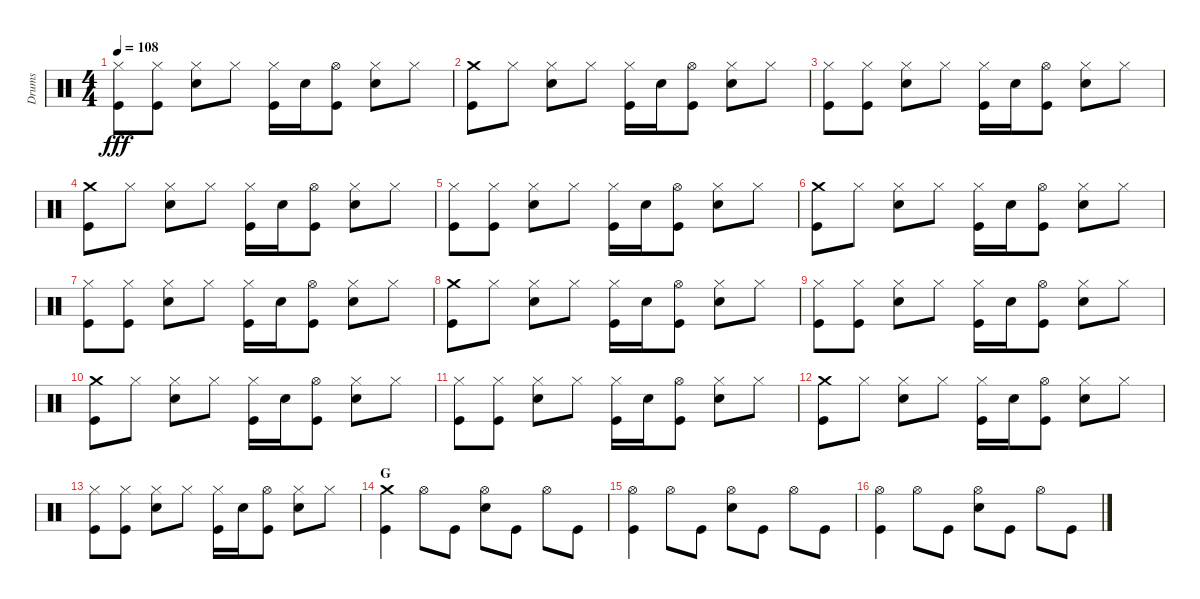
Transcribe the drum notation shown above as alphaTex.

\track ("Drums" "Drums") {instrument percussion}
\staff {score}
\articulation defaults
\ts (4 4)
\tempo 108
\clef neutral
\ks c
("Hi-Hat (closed)" "Kick (hit)").8{dy fff} ("Hi-Hat (closed)" "Kick (hit)").8 ("Hi-Hat (closed)" "Snare (hit) 2").8 "Hi-Hat (closed)".8 ("Hi-Hat (closed)" "Kick (hit)").16 "Snare (hit) 2".16 ("Hi-Hat (open)" "Kick (hit)").8 ("Hi-Hat (closed)" "Snare (hit) 2").8 "Hi-Hat (closed)".8 |
("Crash medium (hit)" "Kick (hit)").8 "Hi-Hat (closed)".8 ("Hi-Hat (closed)" "Snare (hit) 2").8 "Hi-Hat (closed)".8 ("Hi-Hat (closed)" "Kick (hit)").16 "Snare (hit) 2".16 ("Hi-Hat (open)" "Kick (hit)").8 ("Hi-Hat (closed)" "Snare (hit) 2").8 "Hi-Hat (closed)".8 |
("Hi-Hat (closed)" "Kick (hit)").8 ("Hi-Hat (closed)" "Kick (hit)").8 ("Hi-Hat (closed)" "Snare (hit) 2").8 "Hi-Hat (closed)".8 ("Hi-Hat (closed)" "Kick (hit)").16 "Snare (hit) 2".16 ("Hi-Hat (open)" "Kick (hit)").8 ("Hi-Hat (closed)" "Snare (hit) 2").8 "Hi-Hat (closed)".8 |
("Crash medium (hit)" "Kick (hit)").8 "Hi-Hat (closed)".8 ("Hi-Hat (closed)" "Snare (hit) 2").8 "Hi-Hat (closed)".8 ("Hi-Hat (closed)" "Kick (hit)").16 "Snare (hit) 2".16 ("Hi-Hat (open)" "Kick (hit)").8 ("Hi-Hat (closed)" "Snare (hit) 2").8 "Hi-Hat (closed)".8 |
("Hi-Hat (closed)" "Kick (hit)").8 ("Hi-Hat (closed)" "Kick (hit)").8 ("Hi-Hat (closed)" "Snare (hit) 2").8 "Hi-Hat (closed)".8 ("Hi-Hat (closed)" "Kick (hit)").16 "Snare (hit) 2".16 ("Hi-Hat (open)" "Kick (hit)").8 ("Hi-Hat (closed)" "Snare (hit) 2").8 "Hi-Hat (closed)".8 |
("Crash medium (hit)" "Kick (hit)").8 "Hi-Hat (closed)".8 ("Hi-Hat (closed)" "Snare (hit) 2").8 "Hi-Hat (closed)".8 ("Hi-Hat (closed)" "Kick (hit)").16 "Snare (hit) 2".16 ("Hi-Hat (open)" "Kick (hit)").8 ("Hi-Hat (closed)" "Snare (hit) 2").8 "Hi-Hat (closed)".8 |
("Hi-Hat (closed)" "Kick (hit)").8 ("Hi-Hat (closed)" "Kick (hit)").8 ("Hi-Hat (closed)" "Snare (hit) 2").8 "Hi-Hat (closed)".8 ("Hi-Hat (closed)" "Kick (hit)").16 "Snare (hit) 2".16 ("Hi-Hat (open)" "Kick (hit)").8 ("Hi-Hat (closed)" "Snare (hit) 2").8 "Hi-Hat (closed)".8 |
("Crash medium (hit)" "Kick (hit)").8 "Hi-Hat (closed)".8 ("Hi-Hat (closed)" "Snare (hit) 2").8 "Hi-Hat (closed)".8 ("Hi-Hat (closed)" "Kick (hit)").16 "Snare (hit) 2".16 ("Hi-Hat (open)" "Kick (hit)").8 ("Hi-Hat (closed)" "Snare (hit) 2").8 "Hi-Hat (closed)".8 |
("Hi-Hat (closed)" "Kick (hit)").8 ("Hi-Hat (closed)" "Kick (hit)").8 ("Hi-Hat (closed)" "Snare (hit) 2").8 "Hi-Hat (closed)".8 ("Hi-Hat (closed)" "Kick (hit)").16 "Snare (hit) 2".16 ("Hi-Hat (open)" "Kick (hit)").8 ("Hi-Hat (closed)" "Snare (hit) 2").8 "Hi-Hat (closed)".8 |
("Crash medium (hit)" "Kick (hit)").8 "Hi-Hat (closed)".8 ("Hi-Hat (closed)" "Snare (hit) 2").8 "Hi-Hat (closed)".8 ("Hi-Hat (closed)" "Kick (hit)").16 "Snare (hit) 2".16 ("Hi-Hat (open)" "Kick (hit)").8 ("Hi-Hat (closed)" "Snare (hit) 2").8 "Hi-Hat (closed)".8 |
("Hi-Hat (closed)" "Kick (hit)").8 ("Hi-Hat (closed)" "Kick (hit)").8 ("Hi-Hat (closed)" "Snare (hit) 2").8 "Hi-Hat (closed)".8 ("Hi-Hat (closed)" "Kick (hit)").16 "Snare (hit) 2".16 ("Hi-Hat (open)" "Kick (hit)").8 ("Hi-Hat (closed)" "Snare (hit) 2").8 "Hi-Hat (closed)".8 |
("Crash medium (hit)" "Kick (hit)").8 "Hi-Hat (closed)".8 ("Hi-Hat (closed)" "Snare (hit) 2").8 "Hi-Hat (closed)".8 ("Hi-Hat (closed)" "Kick (hit)").16 "Snare (hit) 2".16 ("Hi-Hat (open)" "Kick (hit)").8 ("Hi-Hat (closed)" "Snare (hit) 2").8 "Hi-Hat (closed)".8 |
("Hi-Hat (closed)" "Kick (hit)").8 ("Hi-Hat (closed)" "Kick (hit)").8 ("Hi-Hat (closed)" "Snare (hit) 2").8 "Hi-Hat (closed)".8 ("Hi-Hat (closed)" "Kick (hit)").16 "Snare (hit) 2".16 ("Hi-Hat (open)" "Kick (hit)").8 ("Hi-Hat (closed)" "Snare (hit) 2").8 "Hi-Hat (closed)".8 |
\section ("" "G")
("Crash medium (hit)" "Kick (hit)").4 "Hi-Hat (open)".8 "Kick (hit)".8 ("Hi-Hat (open)" "Snare (hit) 2").8 "Kick (hit)".8 "Hi-Hat (open)".8 "Kick (hit)".8 |
("Hi-Hat (open)" "Kick (hit)").4 "Hi-Hat (open)".8 "Kick (hit)".8 ("Hi-Hat (open)" "Snare (hit) 2").8 "Kick (hit)".8 "Hi-Hat (open)".8 "Kick (hit)".8 |
("Hi-Hat (open)" "Kick (hit)").4 "Hi-Hat (open)".8 "Kick (hit)".8 ("Hi-Hat (open)" "Snare (hit) 2").8 "Kick (hit)".8 "Hi-Hat (open)".8 "Kick (hit)".8
